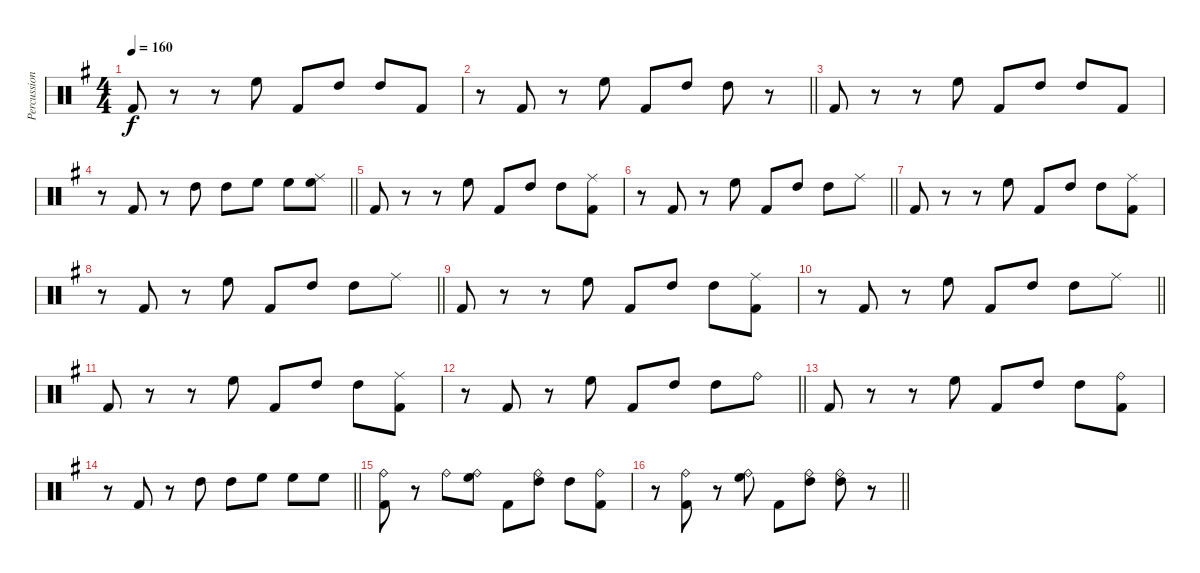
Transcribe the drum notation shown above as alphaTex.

\track ("Percussion" "Percussion") {instrument percussion}
\staff {score}
\articulation defaults
\ts (4 4)
\tempo 160
\clef neutral
\ks g "Kick (hit) 2".8{dy f}
r.8 r.8 "High Floor Tom (hit)".8 "Kick (hit) 2".8 "High Tom (hit)".8 "High Tom (hit)".8 "Kick (hit) 2".8 |
\barLineRight lightlight
r.8 "Kick (hit) 2".8 r.8 "High Floor Tom (hit)".8 "Kick (hit) 2".8 "High Tom (hit)".8 "High Tom (hit)".8 r.8 |
"Kick (hit) 2".8 r.8 r.8 "High Floor Tom (hit)".8 "Kick (hit) 2".8 "High Tom (hit)".8 "High Tom (hit)".8 "Kick (hit) 2".8 |
\barLineRight lightlight
r.8 "Kick (hit) 2".8 r.8 "High Tom (hit)".8 "High Tom (hit)".8 "High Floor Tom (hit)".8 "High Floor Tom (hit)".8 ("High Floor Tom (hit)" "Ride (middle)").8 |
"Kick (hit) 2".8 r.8 r.8 "High Floor Tom (hit)".8 "Kick (hit) 2".8 "High Tom (hit)".8 "High Tom (hit)".8 ("Ride (middle)" "Kick (hit) 2").8 |
\barLineRight lightlight
r.8 "Kick (hit) 2".8 r.8 "High Floor Tom (hit)".8 "Kick (hit) 2".8 "High Tom (hit)".8 "High Tom (hit)".8 "Ride (middle)".8 |
"Kick (hit) 2".8 r.8 r.8 "High Floor Tom (hit)".8 "Kick (hit) 2".8 "High Tom (hit)".8 "High Tom (hit)".8 ("Ride (middle)" "Kick (hit) 2").8 |
\barLineRight lightlight
r.8 "Kick (hit) 2".8 r.8 "High Floor Tom (hit)".8 "Kick (hit) 2".8 "High Tom (hit)".8 "High Tom (hit)".8 "Ride (middle)".8 |
"Kick (hit) 2".8 r.8 r.8 "High Floor Tom (hit)".8 "Kick (hit) 2".8 "High Tom (hit)".8 "High Tom (hit)".8 ("Ride (middle)" "Kick (hit) 2").8 |
\barLineRight lightlight
r.8 "Kick (hit) 2".8 r.8 "High Floor Tom (hit)".8 "Kick (hit) 2".8 "High Tom (hit)".8 "High Tom (hit)".8 "Ride (middle)".8 |
"Kick (hit) 2".8 r.8 r.8 "High Floor Tom (hit)".8 "Kick (hit) 2".8 "High Tom (hit)".8 "High Tom (hit)".8 ("Ride (middle)" "Kick (hit) 2").8 |
\barLineRight lightlight
r.8 "Kick (hit) 2".8 r.8 "High Floor Tom (hit)".8 "Kick (hit) 2".8 "High Tom (hit)".8 "High Tom (hit)".8 "Ride (bell)".8 |
"Kick (hit) 2".8 r.8 r.8 "High Floor Tom (hit)".8 "Kick (hit) 2".8 "High Tom (hit)".8 "High Tom (hit)".8 ("Ride (bell)" "Kick (hit) 2").8 |
\barLineRight lightlight
r.8 "Kick (hit) 2".8 r.8 "High Tom (hit)".8 "High Tom (hit)".8 "High Floor Tom (hit)".8 "High Floor Tom (hit)".8 "High Floor Tom (hit)".8 |
("Ride (bell)" "Kick (hit) 2").8 r.8 "Ride (bell)".8 ("High Floor Tom (hit)" "Ride (bell)").8 "Kick (hit) 2".8 ("High Tom (hit)" "Ride (bell)").8 "High Tom (hit)".8 ("Ride (bell)" "Kick (hit) 2").8 |
\barLineRight lightlight
r.8 ("Ride (bell)" "Kick (hit) 2").8 r.8 ("High Floor Tom (hit)" "Ride (bell)").8 "Kick (hit) 2".8 ("High Tom (hit)" "Ride (bell)").8 ("High Tom (hit)" "Ride (bell)").8 r.8
